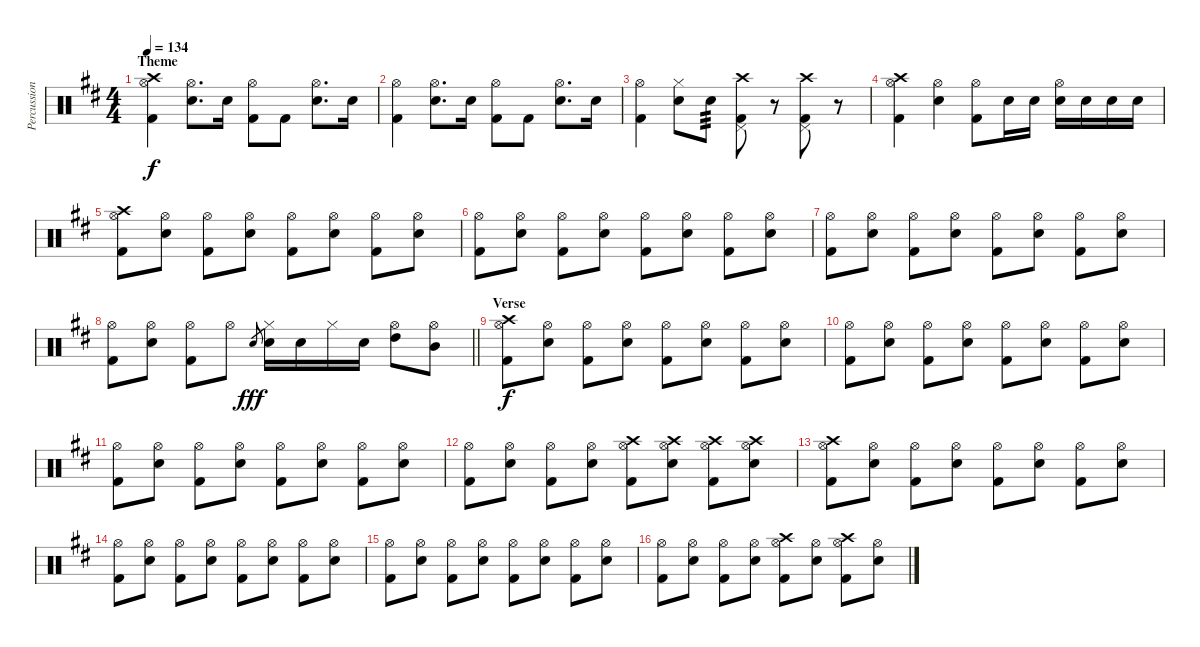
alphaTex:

\track ("Percussion" "Percussion") {instrument percussion}
\staff {score}
\articulation defaults
\ts (4 4)
\section ("" "Theme")
\tempo 134
\clef neutral
\ks bminor
("Crash high (hit)" "Hi-Hat (open)" "Kick (hit) 2").4{dy f} ("Hi-Hat (open)" "Snare (hit) 2").8{d} "Snare (hit) 2".16 ("Hi-Hat (open)" "Kick (hit) 2").8 "Kick (hit) 2".8 ("Hi-Hat (open)" "Snare (hit) 2").8{d} "Snare (hit) 2".16 |
("Hi-Hat (open)" "Kick (hit) 2").4 ("Hi-Hat (open)" "Snare (hit) 2").8{d} "Snare (hit) 2".16 ("Hi-Hat (open)" "Kick (hit) 2").8 "Kick (hit) 2".8 ("Hi-Hat (open)" "Snare (hit) 2").8{d} "Snare (hit) 2".16 |
("Hi-Hat (open)" "Kick (hit) 2").4 ("Hi-Hat (closed)" "Snare (hit) 2").8 "Snare (hit) 2".8{tp 3} ("Crash high (hit)" "Pedal Hi-Hat (hit)" "Kick (hit) 2").8 r.8 ("Crash high (hit)" "Pedal Hi-Hat (hit)" "Kick (hit) 2").8 r.8 |
("Crash high (hit)" "Hi-Hat (open)" "Kick (hit) 2").4 ("Hi-Hat (open)" "Snare (hit) 2").4 ("Hi-Hat (open)" "Kick (hit) 2").8 "Snare (hit) 2".16 "Snare (hit) 2".16 ("Hi-Hat (open)" "Snare (hit) 2").16 "Snare (hit) 2".16 "Snare (hit) 2".16 "Snare (hit) 2".16 |
("Crash high (hit)" "Hi-Hat (open)" "Kick (hit) 2").8 ("Hi-Hat (open)" "Snare (hit) 2").8 ("Hi-Hat (open)" "Kick (hit) 2").8 ("Hi-Hat (open)" "Snare (hit) 2").8 ("Hi-Hat (open)" "Kick (hit) 2").8 ("Hi-Hat (open)" "Snare (hit) 2").8 ("Hi-Hat (open)" "Kick (hit) 2").8 ("Hi-Hat (open)" "Snare (hit) 2").8 |
("Hi-Hat (open)" "Kick (hit) 2").8 ("Hi-Hat (open)" "Snare (hit) 2").8 ("Hi-Hat (open)" "Kick (hit) 2").8 ("Hi-Hat (open)" "Snare (hit) 2").8 ("Hi-Hat (open)" "Kick (hit) 2").8 ("Hi-Hat (open)" "Snare (hit) 2").8 ("Hi-Hat (open)" "Kick (hit) 2").8 ("Hi-Hat (open)" "Snare (hit) 2").8 |
("Hi-Hat (open)" "Kick (hit) 2").8 ("Hi-Hat (open)" "Snare (hit) 2").8 ("Hi-Hat (open)" "Kick (hit) 2").8 ("Hi-Hat (open)" "Snare (hit) 2").8 ("Hi-Hat (open)" "Kick (hit) 2").8 ("Hi-Hat (open)" "Snare (hit) 2").8 ("Hi-Hat (open)" "Kick (hit) 2").8 ("Hi-Hat (open)" "Snare (hit) 2").8 |
\barLineRight lightlight
("Hi-Hat (open)" "Kick (hit) 2").8 ("Hi-Hat (open)" "Snare (hit) 2").8 ("Hi-Hat (open)" "Kick (hit) 2").8 "Hi-Hat (open)".8 "Snare (hit) 2".8{gr dy fff} ("Hi-Hat (closed)" "Snare (hit) 2").16 "Snare (hit) 2".16 "Hi-Hat (closed)".16 "Snare (hit) 2".16 ("Hi-Hat (open)" "High Tom (hit)").8 ("Hi-Hat (open)" "Mid Tom (hit)").8 |
\section ("" "Verse")
("Crash high (hit)" "Hi-Hat (open)" "Kick (hit) 2").8{dy f} ("Hi-Hat (open)" "Snare (hit) 2").8 ("Hi-Hat (open)" "Kick (hit) 2").8 ("Hi-Hat (open)" "Snare (hit) 2").8 ("Hi-Hat (open)" "Kick (hit) 2").8 ("Hi-Hat (open)" "Snare (hit) 2").8 ("Hi-Hat (open)" "Kick (hit) 2").8 ("Hi-Hat (open)" "Snare (hit) 2").8 |
("Hi-Hat (open)" "Kick (hit) 2").8 ("Hi-Hat (open)" "Snare (hit) 2").8 ("Hi-Hat (open)" "Kick (hit) 2").8 ("Hi-Hat (open)" "Snare (hit) 2").8 ("Hi-Hat (open)" "Kick (hit) 2").8 ("Hi-Hat (open)" "Snare (hit) 2").8 ("Hi-Hat (open)" "Kick (hit) 2").8 ("Hi-Hat (open)" "Snare (hit) 2").8 |
("Hi-Hat (open)" "Kick (hit) 2").8 ("Hi-Hat (open)" "Snare (hit) 2").8 ("Hi-Hat (open)" "Kick (hit) 2").8 ("Hi-Hat (open)" "Snare (hit) 2").8 ("Hi-Hat (open)" "Kick (hit) 2").8 ("Hi-Hat (open)" "Snare (hit) 2").8 ("Hi-Hat (open)" "Kick (hit) 2").8 ("Hi-Hat (open)" "Snare (hit) 2").8 |
("Hi-Hat (open)" "Kick (hit) 2").8 ("Hi-Hat (open)" "Snare (hit) 2").8 ("Hi-Hat (open)" "Kick (hit) 2").8 ("Hi-Hat (open)" "Snare (hit) 2").8 ("Crash high (hit)" "Hi-Hat (open)" "Kick (hit) 2").8 ("Crash high (hit)" "Hi-Hat (open)" "Snare (hit) 2").8 ("Crash high (hit)" "Hi-Hat (open)" "Kick (hit) 2").8 ("Crash high (hit)" "Hi-Hat (open)" "Snare (hit) 2").8 |
("Crash high (hit)" "Hi-Hat (open)" "Kick (hit) 2").8 ("Hi-Hat (open)" "Snare (hit) 2").8 ("Hi-Hat (open)" "Kick (hit) 2").8 ("Hi-Hat (open)" "Snare (hit) 2").8 ("Hi-Hat (open)" "Kick (hit) 2").8 ("Hi-Hat (open)" "Snare (hit) 2").8 ("Hi-Hat (open)" "Kick (hit) 2").8 ("Hi-Hat (open)" "Snare (hit) 2").8 |
("Hi-Hat (open)" "Kick (hit) 2").8 ("Hi-Hat (open)" "Snare (hit) 2").8 ("Hi-Hat (open)" "Kick (hit) 2").8 ("Hi-Hat (open)" "Snare (hit) 2").8 ("Hi-Hat (open)" "Kick (hit) 2").8 ("Hi-Hat (open)" "Snare (hit) 2").8 ("Hi-Hat (open)" "Kick (hit) 2").8 ("Hi-Hat (open)" "Snare (hit) 2").8 |
("Hi-Hat (open)" "Kick (hit) 2").8 ("Hi-Hat (open)" "Snare (hit) 2").8 ("Hi-Hat (open)" "Kick (hit) 2").8 ("Hi-Hat (open)" "Snare (hit) 2").8 ("Hi-Hat (open)" "Kick (hit) 2").8 ("Hi-Hat (open)" "Snare (hit) 2").8 ("Hi-Hat (open)" "Kick (hit) 2").8 ("Hi-Hat (open)" "Snare (hit) 2").8 |
("Hi-Hat (open)" "Kick (hit) 2").8 ("Hi-Hat (open)" "Snare (hit) 2").8 ("Hi-Hat (open)" "Kick (hit) 2").8 ("Hi-Hat (open)" "Snare (hit) 2").8 ("Crash high (hit)" "Hi-Hat (open)" "Kick (hit) 2").8 ("Hi-Hat (open)" "Snare (hit) 2").8 ("Crash high (hit)" "Hi-Hat (open)" "Kick (hit) 2").8 ("Hi-Hat (open)" "Snare (hit) 2").8
